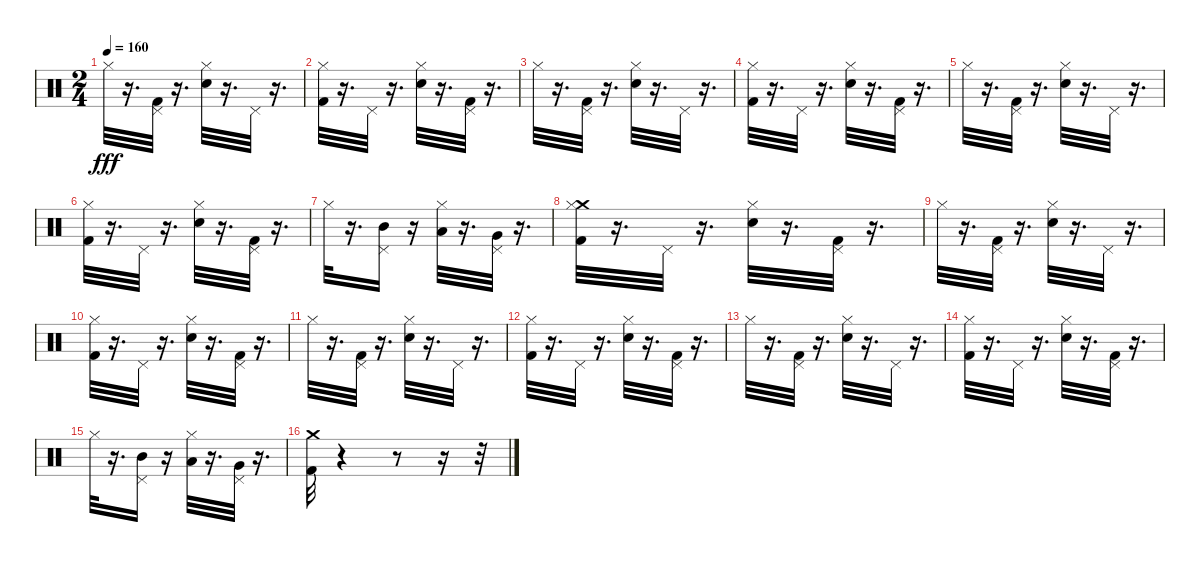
\track "" {instrument percussion}
\staff {score}
\articulation defaults
\ts (2 4)
\tempo 160
\clef neutral
\ks c "Hi-Hat (closed)".32{dy fff}
r.16{d} ("Pedal Hi-Hat (hit)" "Kick (hit) 2").32 r.16{d} ("Hi-Hat (closed)" "Snare (hit) 2").32 r.16{d} "Pedal Hi-Hat (hit)".32 r.16{d} |
("Hi-Hat (closed)" "Kick (hit) 2").32 r.16{d} "Pedal Hi-Hat (hit)".32 r.16{d} ("Hi-Hat (closed)" "Snare (hit) 2").32 r.16{d} ("Pedal Hi-Hat (hit)" "Kick (hit) 2").32 r.16{d} |
"Hi-Hat (closed)".32 r.16{d} ("Pedal Hi-Hat (hit)" "Kick (hit) 2").32 r.16{d} ("Hi-Hat (closed)" "Snare (hit) 2").32 r.16{d} "Pedal Hi-Hat (hit)".32 r.16{d} |
("Hi-Hat (closed)" "Kick (hit) 2").32 r.16{d} "Pedal Hi-Hat (hit)".32 r.16{d} ("Hi-Hat (closed)" "Snare (hit) 2").32 r.16{d} ("Pedal Hi-Hat (hit)" "Kick (hit) 2").32 r.16{d} |
"Hi-Hat (closed)".32 r.16{d} ("Pedal Hi-Hat (hit)" "Kick (hit) 2").32 r.16{d} ("Hi-Hat (closed)" "Snare (hit) 2").32 r.16{d} "Pedal Hi-Hat (hit)".32 r.16{d} |
("Hi-Hat (closed)" "Kick (hit) 2").32 r.16{d} "Pedal Hi-Hat (hit)".32 r.16{d} ("Hi-Hat (closed)" "Snare (hit) 2").32 r.16{d} ("Pedal Hi-Hat (hit)" "Kick (hit) 2").32 r.16{d} |
"Hi-Hat (closed)".32 r.16{d} ("Pedal Hi-Hat (hit)" "Mid Tom (hit)").16 r.16 ("Hi-Hat (closed)" "Low Tom (hit)").32 r.16{d} ("Pedal Hi-Hat (hit)" "Very Low Tom (hit)").32 r.16{d} |
("Crash medium (hit)" "Hi-Hat (closed)" "Kick (hit) 2").32 r.16{d} "Pedal Hi-Hat (hit)".32 r.16{d} ("Hi-Hat (closed)" "Snare (hit) 2").32 r.16{d} ("Pedal Hi-Hat (hit)" "Kick (hit) 2").32 r.16{d} |
"Hi-Hat (closed)".32 r.16{d} ("Pedal Hi-Hat (hit)" "Kick (hit) 2").32 r.16{d} ("Hi-Hat (closed)" "Snare (hit) 2").32 r.16{d} "Pedal Hi-Hat (hit)".32 r.16{d} |
("Hi-Hat (closed)" "Kick (hit) 2").32 r.16{d} "Pedal Hi-Hat (hit)".32 r.16{d} ("Hi-Hat (closed)" "Snare (hit) 2").32 r.16{d} ("Pedal Hi-Hat (hit)" "Kick (hit) 2").32 r.16{d} |
"Hi-Hat (closed)".32 r.16{d} ("Pedal Hi-Hat (hit)" "Kick (hit) 2").32 r.16{d} ("Hi-Hat (closed)" "Snare (hit) 2").32 r.16{d} "Pedal Hi-Hat (hit)".32 r.16{d} |
("Hi-Hat (closed)" "Kick (hit) 2").32 r.16{d} "Pedal Hi-Hat (hit)".32 r.16{d} ("Hi-Hat (closed)" "Snare (hit) 2").32 r.16{d} ("Pedal Hi-Hat (hit)" "Kick (hit) 2").32 r.16{d} |
"Hi-Hat (closed)".32 r.16{d} ("Pedal Hi-Hat (hit)" "Kick (hit) 2").32 r.16{d} ("Hi-Hat (closed)" "Snare (hit) 2").32 r.16{d} "Pedal Hi-Hat (hit)".32 r.16{d} |
("Hi-Hat (closed)" "Kick (hit) 2").32 r.16{d} "Pedal Hi-Hat (hit)".32 r.16{d} ("Hi-Hat (closed)" "Snare (hit) 2").32 r.16{d} ("Pedal Hi-Hat (hit)" "Kick (hit) 2").32 r.16{d} |
"Hi-Hat (closed)".32 r.16{d} ("Pedal Hi-Hat (hit)" "Mid Tom (hit)").16 r.16 ("Hi-Hat (closed)" "Low Tom (hit)").32 r.16{d} ("Pedal Hi-Hat (hit)" "Very Low Tom (hit)").32 r.16{d} |
("Crash medium (hit)" "Kick (hit) 2").32 r.4 r.8 r.16 r.32
